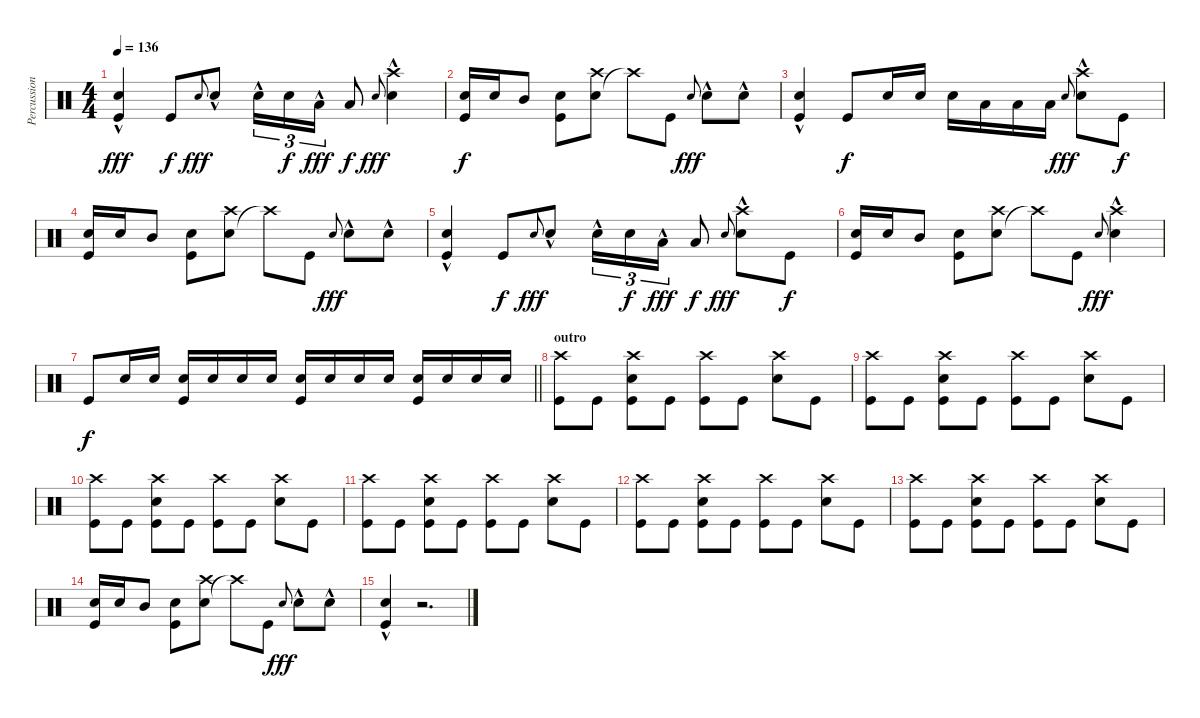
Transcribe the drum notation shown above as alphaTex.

\track ("Percussions" "Percussion") {instrument percussion}
\staff {score}
\articulation defaults
\ts (4 4)
\tempo 136
\clef neutral
\ks c
("Snare (hit) 2"{hac} "Kick (hit)").4{dy fff} "Kick (hit)".8{dy f} "Snare (hit) 2".8{gr onbeat dy fff} "Snare (hit) 2"{hac}.8 "Snare (hit) 2"{hac}.16{tu (3 2)} "Snare (hit) 2".16{tu (3 2) dy f} "Low Tom (hit)"{hac}.16{tu (3 2) dy fff} "Low Tom (hit)".8{dy f} "Snare (hit) 2".8{gr onbeat dy fff} ("Snare (hit) 2"{hac} "Crash high (hit)").4 |
("Snare (hit) 2" "Kick (hit)").16{dy f} "Snare (hit) 2".16 "Mid Tom (hit)".8 ("Snare (hit) 2" "Kick (hit)").8 ("Snare (hit) 2" "Crash high (hit)").8 "Crash high (hit)"{t}.8 "Kick (hit)".8 "Snare (hit) 2".8{gr onbeat dy fff} "Snare (hit) 2"{hac}.8 "Snare (hit) 2"{hac}.8 |
("Snare (hit) 2"{hac} "Kick (hit)").4 "Kick (hit)".8{dy f} "Snare (hit) 2".16 "Snare (hit) 2".16 "Snare (hit) 2".16 "Low Tom (hit)".16 "Low Tom (hit)".16 "Low Tom (hit)".16 "Snare (hit) 2".8{gr onbeat dy fff} ("Snare (hit) 2"{hac} "Crash high (hit)").8 "Kick (hit)".8{dy f} |
("Snare (hit) 2" "Kick (hit)").16 "Snare (hit) 2".16 "Mid Tom (hit)".8 ("Snare (hit) 2" "Kick (hit)").8 ("Snare (hit) 2" "Crash high (hit)").8 "Crash high (hit)"{t}.8 "Kick (hit)".8 "Snare (hit) 2".8{gr onbeat dy fff} "Snare (hit) 2"{hac}.8 "Snare (hit) 2"{hac}.8 |
("Snare (hit) 2"{hac} "Kick (hit)").4 "Kick (hit)".8{dy f} "Snare (hit) 2".8{gr onbeat dy fff} "Snare (hit) 2"{hac}.8 "Snare (hit) 2"{hac}.16{tu (3 2)} "Snare (hit) 2".16{tu (3 2) dy f} "Low Tom (hit)"{hac}.16{tu (3 2) dy fff} "Low Tom (hit)".8{dy f} "Snare (hit) 2".8{gr onbeat dy fff} ("Snare (hit) 2"{hac} "Crash high (hit)").8 "Kick (hit)".8{dy f} |
("Snare (hit) 2" "Kick (hit)").16 "Snare (hit) 2".16 "Mid Tom (hit)".8 ("Snare (hit) 2" "Kick (hit)").8 ("Snare (hit) 2" "Crash high (hit)").8 "Crash high (hit)"{t}.8 "Kick (hit)".8 "Snare (hit) 2".8{gr onbeat dy fff} ("Snare (hit) 2"{hac} "Crash high (hit)").4 |
\barLineRight lightlight "Kick (hit)".8{dy f volume 6} "Snare (hit) 2".16{volume 16} "Snare (hit) 2".16
("Snare (hit) 2" "Kick (hit)").16 "Snare (hit) 2".16 "Snare (hit) 2".16 "Snare (hit) 2".16 ("Snare (hit) 2" "Kick (hit)").16 "Snare (hit) 2".16 "Snare (hit) 2".16 "Snare (hit) 2".16 ("Snare (hit) 2" "Kick (hit)").16 "Snare (hit) 2".16 "Snare (hit) 2".16 "Snare (hit) 2".16 |
\section ("" "outro")
("Kick (hit)" "Crash high (hit)").8 "Kick (hit)".8 ("Crash high (hit)" "Kick (hit)" "Snare (hit) 2").8 "Kick (hit)".8 ("Kick (hit)" "Crash high (hit)").8 "Kick (hit)".8 ("Snare (hit) 2" "Crash high (hit)").8 "Kick (hit)".8 |
("Kick (hit)" "Crash high (hit)").8 "Kick (hit)".8 ("Crash high (hit)" "Kick (hit)" "Snare (hit) 2").8 "Kick (hit)".8 ("Kick (hit)" "Crash high (hit)").8 "Kick (hit)".8 ("Snare (hit) 2" "Crash high (hit)").8 "Kick (hit)".8 |
("Kick (hit)" "Crash high (hit)").8 "Kick (hit)".8 ("Crash high (hit)" "Kick (hit)" "Snare (hit) 2").8 "Kick (hit)".8 ("Kick (hit)" "Crash high (hit)").8 "Kick (hit)".8 ("Snare (hit) 2" "Crash high (hit)").8 "Kick (hit)".8 |
("Kick (hit)" "Crash high (hit)").8 "Kick (hit)".8 ("Crash high (hit)" "Kick (hit)" "Snare (hit) 2").8 "Kick (hit)".8 ("Kick (hit)" "Crash high (hit)").8 "Kick (hit)".8 ("Snare (hit) 2" "Crash high (hit)").8 "Kick (hit)".8 |
("Kick (hit)" "Crash high (hit)").8 "Kick (hit)".8 ("Crash high (hit)" "Kick (hit)" "Snare (hit) 2").8 "Kick (hit)".8 ("Kick (hit)" "Crash high (hit)").8 "Kick (hit)".8 ("Snare (hit) 2" "Crash high (hit)").8 "Kick (hit)".8 |
("Kick (hit)" "Crash high (hit)").8 "Kick (hit)".8 ("Crash high (hit)" "Kick (hit)" "Snare (hit) 2").8 "Kick (hit)".8 ("Kick (hit)" "Crash high (hit)").8 "Kick (hit)".8 ("Snare (hit) 2" "Crash high (hit)").8 "Kick (hit)".8 |
("Snare (hit) 2" "Kick (hit)").16 "Snare (hit) 2".16 "Mid Tom (hit)".8 ("Snare (hit) 2" "Kick (hit)").8 ("Snare (hit) 2" "Crash high (hit)").8 "Crash high (hit)"{t}.8 "Kick (hit)".8 "Snare (hit) 2".8{gr onbeat dy fff} "Snare (hit) 2"{hac}.8 "Snare (hit) 2"{hac}.8 |
("Snare (hit) 2"{hac} "Kick (hit)").4 r.2{d}
